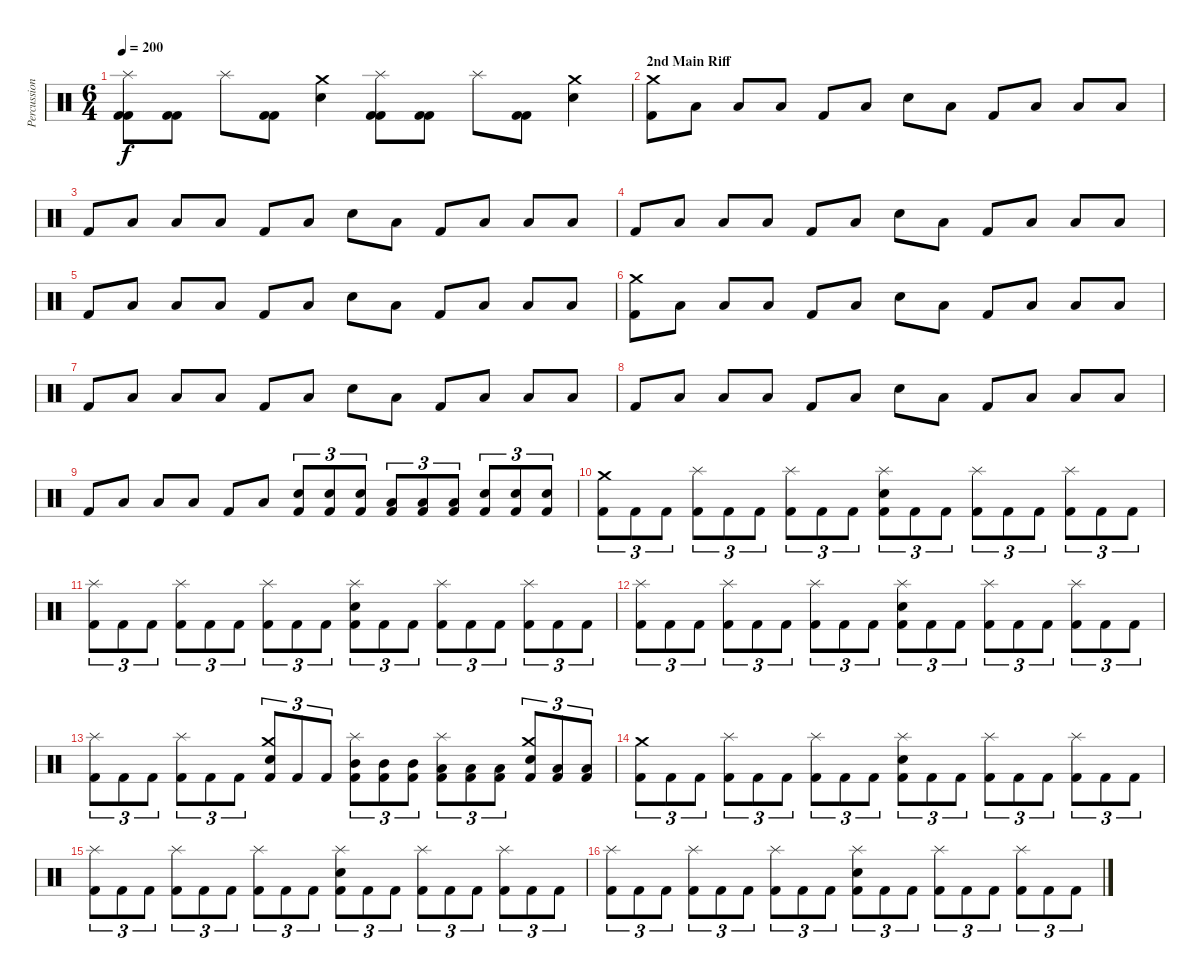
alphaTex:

\track ("Percussion" "Percussion") {instrument percussion}
\staff {score}
\articulation defaults
\ts (6 4)
\tempo 200
\clef neutral
\ks c
("Splash (hit)" "Kick (hit) 2" "Kick (hit) 2").8{dy f} ("Kick (hit) 2" "Kick (hit) 2").8 "Splash (hit)".8 ("Kick (hit) 2" "Kick (hit) 2").8 ("Crash medium (hit)" "Electric Snare (hit)").4 ("Splash (hit)" "Kick (hit) 2" "Kick (hit) 2").8 ("Kick (hit) 2" "Kick (hit) 2").8 "Splash (hit)".8 ("Kick (hit) 2" "Kick (hit) 2").8 ("Crash medium (hit)" "Electric Snare (hit)").4 |
\section ("" "2nd Main Riff")
("Crash medium (hit)" "Kick (hit) 2").8 "Low Tom (hit)".8 "Low Floor Tom (hit)".8 "Low Floor Tom (hit)".8 "Kick (hit) 2".8 "Low Tom (hit)".8 "Electric Snare (hit)".8 "Low Floor Tom (hit)".8 "Kick (hit) 2".8 "Low Tom (hit)".8 "Low Floor Tom (hit)".8 "Low Floor Tom (hit)".8 |
"Kick (hit) 2".8 "Low Tom (hit)".8 "Low Floor Tom (hit)".8 "Low Floor Tom (hit)".8 "Kick (hit) 2".8 "Low Tom (hit)".8 "Electric Snare (hit)".8 "Low Floor Tom (hit)".8 "Kick (hit) 2".8 "Low Tom (hit)".8 "Low Floor Tom (hit)".8 "Low Floor Tom (hit)".8 |
"Kick (hit) 2".8 "Low Tom (hit)".8 "Low Floor Tom (hit)".8 "Low Floor Tom (hit)".8 "Kick (hit) 2".8 "Low Tom (hit)".8 "Electric Snare (hit)".8 "Low Floor Tom (hit)".8 "Kick (hit) 2".8 "Low Tom (hit)".8 "Low Floor Tom (hit)".8 "Low Floor Tom (hit)".8 |
"Kick (hit) 2".8 "Low Tom (hit)".8 "Low Floor Tom (hit)".8 "Low Floor Tom (hit)".8 "Kick (hit) 2".8 "Low Tom (hit)".8 "Electric Snare (hit)".8 "Low Floor Tom (hit)".8 "Kick (hit) 2".8 "Low Tom (hit)".8 "Low Floor Tom (hit)".8 "Low Floor Tom (hit)".8 |
("Crash medium (hit)" "Kick (hit) 2").8 "Low Tom (hit)".8 "Low Floor Tom (hit)".8 "Low Floor Tom (hit)".8 "Kick (hit) 2".8 "Low Tom (hit)".8 "Electric Snare (hit)".8 "Low Floor Tom (hit)".8 "Kick (hit) 2".8 "Low Tom (hit)".8 "Low Floor Tom (hit)".8 "Low Floor Tom (hit)".8 |
"Kick (hit) 2".8 "Low Tom (hit)".8 "Low Floor Tom (hit)".8 "Low Floor Tom (hit)".8 "Kick (hit) 2".8 "Low Tom (hit)".8 "Electric Snare (hit)".8 "Low Floor Tom (hit)".8 "Kick (hit) 2".8 "Low Tom (hit)".8 "Low Floor Tom (hit)".8 "Low Floor Tom (hit)".8 |
"Kick (hit) 2".8 "Low Tom (hit)".8 "Low Floor Tom (hit)".8 "Low Floor Tom (hit)".8 "Kick (hit) 2".8 "Low Tom (hit)".8 "Electric Snare (hit)".8 "Low Floor Tom (hit)".8 "Kick (hit) 2".8 "Low Tom (hit)".8 "Low Floor Tom (hit)".8 "Low Floor Tom (hit)".8 |
"Kick (hit) 2".8 "Low Tom (hit)".8 "Low Floor Tom (hit)".8 "Low Floor Tom (hit)".8 "Kick (hit) 2".8 "Low Tom (hit)".8 ("Electric Snare (hit)" "Kick (hit) 2").8{tu (3 2)} ("Electric Snare (hit)" "Kick (hit) 2").8{tu (3 2)} ("Electric Snare (hit)" "Kick (hit) 2").8{tu (3 2)} ("Low Floor Tom (hit)" "Kick (hit) 2").8{tu (3 2)} ("Low Floor Tom (hit)" "Kick (hit) 2").8{tu (3 2)} ("Low Floor Tom (hit)" "Kick (hit) 2").8{tu (3 2)} ("Electric Snare (hit)" "Kick (hit) 2").8{tu (3 2)} ("Electric Snare (hit)" "Kick (hit) 2").8{tu (3 2)} ("Electric Snare (hit)" "Kick (hit) 2").8{tu (3 2)} |
("Crash medium (hit)" "Kick (hit) 2").8{tu (3 2)} "Kick (hit) 2".8{tu (3 2)} "Kick (hit) 2".8{tu (3 2)} ("Splash (hit)" "Kick (hit) 2").8{tu (3 2)} "Kick (hit) 2".8{tu (3 2)} "Kick (hit) 2".8{tu (3 2)} ("Splash (hit)" "Kick (hit) 2").8{tu (3 2)} "Kick (hit) 2".8{tu (3 2)} "Kick (hit) 2".8{tu (3 2)} ("Splash (hit)" "Electric Snare (hit)" "Kick (hit) 2").8{tu (3 2)} "Kick (hit) 2".8{tu (3 2)} "Kick (hit) 2".8{tu (3 2)} ("Splash (hit)" "Kick (hit) 2").8{tu (3 2)} "Kick (hit) 2".8{tu (3 2)} "Kick (hit) 2".8{tu (3 2)} ("Splash (hit)" "Kick (hit) 2").8{tu (3 2)} "Kick (hit) 2".8{tu (3 2)} "Kick (hit) 2".8{tu (3 2)} |
("Splash (hit)" "Kick (hit) 2").8{tu (3 2)} "Kick (hit) 2".8{tu (3 2)} "Kick (hit) 2".8{tu (3 2)} ("Splash (hit)" "Kick (hit) 2").8{tu (3 2)} "Kick (hit) 2".8{tu (3 2)} "Kick (hit) 2".8{tu (3 2)} ("Splash (hit)" "Kick (hit) 2").8{tu (3 2)} "Kick (hit) 2".8{tu (3 2)} "Kick (hit) 2".8{tu (3 2)} ("Splash (hit)" "Electric Snare (hit)" "Kick (hit) 2").8{tu (3 2)} "Kick (hit) 2".8{tu (3 2)} "Kick (hit) 2".8{tu (3 2)} ("Splash (hit)" "Kick (hit) 2").8{tu (3 2)} "Kick (hit) 2".8{tu (3 2)} "Kick (hit) 2".8{tu (3 2)} ("Splash (hit)" "Kick (hit) 2").8{tu (3 2)} "Kick (hit) 2".8{tu (3 2)} "Kick (hit) 2".8{tu (3 2)} |
("Splash (hit)" "Kick (hit) 2").8{tu (3 2)} "Kick (hit) 2".8{tu (3 2)} "Kick (hit) 2".8{tu (3 2)} ("Splash (hit)" "Kick (hit) 2").8{tu (3 2)} "Kick (hit) 2".8{tu (3 2)} "Kick (hit) 2".8{tu (3 2)} ("Splash (hit)" "Kick (hit) 2").8{tu (3 2)} "Kick (hit) 2".8{tu (3 2)} "Kick (hit) 2".8{tu (3 2)} ("Splash (hit)" "Electric Snare (hit)" "Kick (hit) 2").8{tu (3 2)} "Kick (hit) 2".8{tu (3 2)} "Kick (hit) 2".8{tu (3 2)} ("Splash (hit)" "Kick (hit) 2").8{tu (3 2)} "Kick (hit) 2".8{tu (3 2)} "Kick (hit) 2".8{tu (3 2)} ("Splash (hit)" "Kick (hit) 2").8{tu (3 2)} "Kick (hit) 2".8{tu (3 2)} "Kick (hit) 2".8{tu (3 2)} |
("Splash (hit)" "Kick (hit) 2").8{tu (3 2)} "Kick (hit) 2".8{tu (3 2)} "Kick (hit) 2".8{tu (3 2)} ("Splash (hit)" "Kick (hit) 2").8{tu (3 2)} "Kick (hit) 2".8{tu (3 2)} "Kick (hit) 2".8{tu (3 2)} ("Crash medium (hit)" "Electric Snare (hit)" "Kick (hit) 2").8{tu (3 2)} "Kick (hit) 2".8{tu (3 2)} "Kick (hit) 2".8{tu (3 2)} ("Splash (hit)" "Mid Tom (hit)" "Kick (hit) 2").8{tu (3 2)} ("Mid Tom (hit)" "Kick (hit) 2").8{tu (3 2)} ("Mid Tom (hit)" "Kick (hit) 2").8{tu (3 2)} ("Splash (hit)" "Low Tom (hit)" "Kick (hit) 2").8{tu (3 2)} ("Low Tom (hit)" "Kick (hit) 2").8{tu (3 2)} ("Low Tom (hit)" "Kick (hit) 2").8{tu (3 2)} ("Crash medium (hit)" "Electric Snare (hit)" "Kick (hit) 2").8{tu (3 2)} ("Low Floor Tom (hit)" "Kick (hit) 2").8{tu (3 2)} ("Low Floor Tom (hit)" "Kick (hit) 2").8{tu (3 2)} |
("Crash medium (hit)" "Kick (hit) 2").8{tu (3 2)} "Kick (hit) 2".8{tu (3 2)} "Kick (hit) 2".8{tu (3 2)} ("Splash (hit)" "Kick (hit) 2").8{tu (3 2)} "Kick (hit) 2".8{tu (3 2)} "Kick (hit) 2".8{tu (3 2)} ("Splash (hit)" "Kick (hit) 2").8{tu (3 2)} "Kick (hit) 2".8{tu (3 2)} "Kick (hit) 2".8{tu (3 2)} ("Splash (hit)" "Electric Snare (hit)" "Kick (hit) 2").8{tu (3 2)} "Kick (hit) 2".8{tu (3 2)} "Kick (hit) 2".8{tu (3 2)} ("Splash (hit)" "Kick (hit) 2").8{tu (3 2)} "Kick (hit) 2".8{tu (3 2)} "Kick (hit) 2".8{tu (3 2)} ("Splash (hit)" "Kick (hit) 2").8{tu (3 2)} "Kick (hit) 2".8{tu (3 2)} "Kick (hit) 2".8{tu (3 2)} |
("Splash (hit)" "Kick (hit) 2").8{tu (3 2)} "Kick (hit) 2".8{tu (3 2)} "Kick (hit) 2".8{tu (3 2)} ("Splash (hit)" "Kick (hit) 2").8{tu (3 2)} "Kick (hit) 2".8{tu (3 2)} "Kick (hit) 2".8{tu (3 2)} ("Splash (hit)" "Kick (hit) 2").8{tu (3 2)} "Kick (hit) 2".8{tu (3 2)} "Kick (hit) 2".8{tu (3 2)} ("Splash (hit)" "Electric Snare (hit)" "Kick (hit) 2").8{tu (3 2)} "Kick (hit) 2".8{tu (3 2)} "Kick (hit) 2".8{tu (3 2)} ("Splash (hit)" "Kick (hit) 2").8{tu (3 2)} "Kick (hit) 2".8{tu (3 2)} "Kick (hit) 2".8{tu (3 2)} ("Splash (hit)" "Kick (hit) 2").8{tu (3 2)} "Kick (hit) 2".8{tu (3 2)} "Kick (hit) 2".8{tu (3 2)} |
("Splash (hit)" "Kick (hit) 2").8{tu (3 2)} "Kick (hit) 2".8{tu (3 2)} "Kick (hit) 2".8{tu (3 2)} ("Splash (hit)" "Kick (hit) 2").8{tu (3 2)} "Kick (hit) 2".8{tu (3 2)} "Kick (hit) 2".8{tu (3 2)} ("Splash (hit)" "Kick (hit) 2").8{tu (3 2)} "Kick (hit) 2".8{tu (3 2)} "Kick (hit) 2".8{tu (3 2)} ("Splash (hit)" "Electric Snare (hit)" "Kick (hit) 2").8{tu (3 2)} "Kick (hit) 2".8{tu (3 2)} "Kick (hit) 2".8{tu (3 2)} ("Splash (hit)" "Kick (hit) 2").8{tu (3 2)} "Kick (hit) 2".8{tu (3 2)} "Kick (hit) 2".8{tu (3 2)} ("Splash (hit)" "Kick (hit) 2").8{tu (3 2)} "Kick (hit) 2".8{tu (3 2)} "Kick (hit) 2".8{tu (3 2)}
